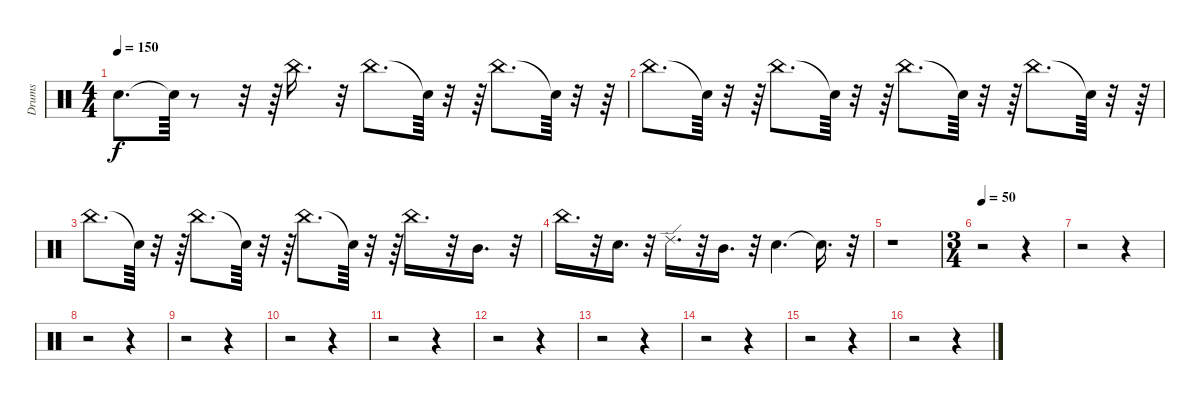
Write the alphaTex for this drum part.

\track ("Drums" "Drums") {instrument percussion}
\staff {score}
\articulation defaults
\ts (4 4)
\tempo 150
\clef neutral
\ks c "Electric Snare (hit)".8{d dy f} "Snare (hit)"{t}.64
r.8 r.32 r.64 "China (hit)".16{d} r.32 "China (hit)".8{d} "Snare (hit)"{t}.64 r.32 r.64 "China (hit)".8{d} "Snare (hit)"{t}.64 r.32 r.64 |
"China (hit)".8{d} "Snare (hit)"{t}.64 r.32 r.64 "China (hit)".8{d} "Snare (hit)"{t}.64 r.32 r.64 "China (hit)".8{d} "Snare (hit)"{t}.64 r.32 r.64 "China (hit)".8{d} "Snare (hit)"{t}.64 r.32 r.64 |
"China (hit)".8{d} "Snare (hit)"{t}.64 r.32 r.64 "China (hit)".8{d} "Snare (hit)"{t}.64 r.32 r.64 "China (hit)".8{d} "Snare (hit)"{t}.64 r.32 r.64 "China (hit)".16{d} r.32 "Mid Tom (hit)".16{d} r.32 |
"China (hit)".16{d} r.32 "Electric Snare (hit)".16{d} r.32 "Ride (edge) 2".16{d} r.32 "Mid Tom (hit)".16{d} r.32 "Electric Snare (hit)".4{d} "Snare (hit)"{t}.16{d} r.32 |
r.1 |
\ts (3 4)
\tempo 50
r.2 r.4 |
r.2 r.4 |
r.2 r.4 |
r.2 r.4 |
r.2 r.4 |
r.2 r.4 |
r.2 r.4 |
r.2 r.4 |
r.2 r.4 |
r.2 r.4 |
r.2 r.4
